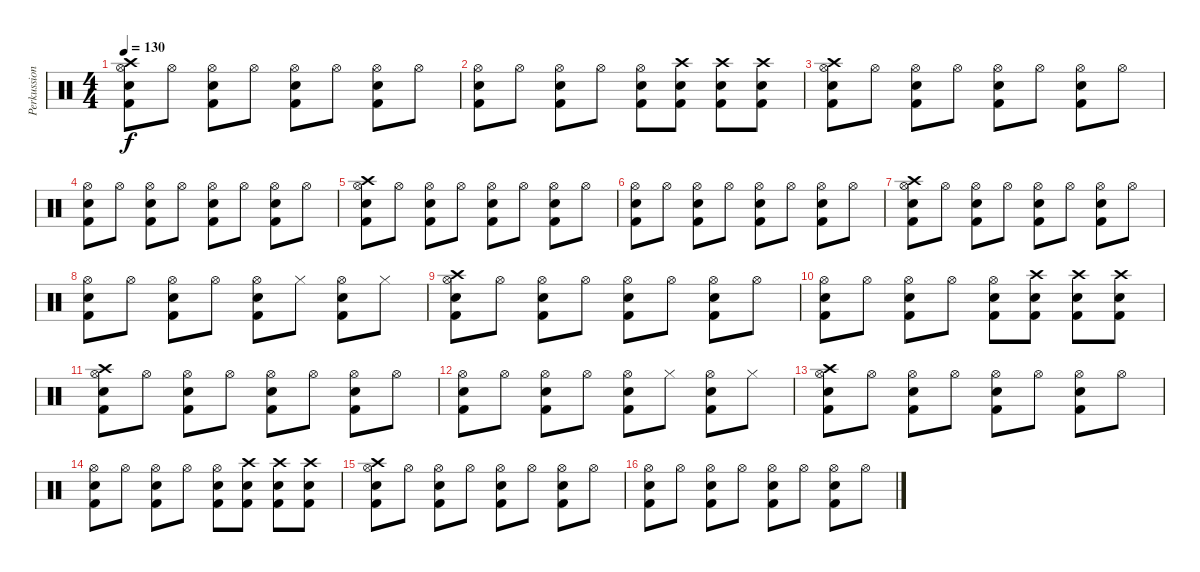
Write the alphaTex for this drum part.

\track ("Perkussion" "Perkussion") {instrument percussion}
\staff {score}
\articulation defaults
\ts (4 4)
\tempo 130
\clef neutral
\ks c
("Hi-Hat (open)" "Crash high (hit)" "Electric Snare (hit)" "Kick (hit) 2").8{dy f} "Hi-Hat (open)".8 ("Hi-Hat (open)" "Electric Snare (hit)" "Kick (hit) 2").8 "Hi-Hat (open)".8 ("Hi-Hat (open)" "Electric Snare (hit)" "Kick (hit) 2").8 "Hi-Hat (open)".8 ("Hi-Hat (open)" "Electric Snare (hit)" "Kick (hit) 2").8 "Hi-Hat (open)".8 |
("Hi-Hat (open)" "Electric Snare (hit)" "Kick (hit) 2").8 "Hi-Hat (open)".8 ("Hi-Hat (open)" "Electric Snare (hit)" "Kick (hit) 2").8 "Hi-Hat (open)".8 ("Hi-Hat (open)" "Electric Snare (hit)" "Kick (hit) 2").8 ("Crash high (hit)" "Electric Snare (hit)" "Kick (hit) 2").8 ("Crash high (hit)" "Electric Snare (hit)" "Kick (hit) 2").8 ("Crash high (hit)" "Electric Snare (hit)" "Kick (hit) 2").8 |
("Hi-Hat (open)" "Crash high (hit)" "Electric Snare (hit)" "Kick (hit) 2").8 "Hi-Hat (open)".8 ("Hi-Hat (open)" "Electric Snare (hit)" "Kick (hit) 2").8 "Hi-Hat (open)".8 ("Hi-Hat (open)" "Electric Snare (hit)" "Kick (hit) 2").8 "Hi-Hat (open)".8 ("Hi-Hat (open)" "Electric Snare (hit)" "Kick (hit) 2").8 "Hi-Hat (open)".8 |
("Hi-Hat (open)" "Electric Snare (hit)" "Kick (hit) 2").8 "Hi-Hat (open)".8 ("Hi-Hat (open)" "Electric Snare (hit)" "Kick (hit) 2").8 "Hi-Hat (open)".8 ("Hi-Hat (open)" "Electric Snare (hit)" "Kick (hit) 2").8 "Hi-Hat (open)".8 ("Hi-Hat (open)" "Electric Snare (hit)" "Kick (hit) 2").8 "Hi-Hat (open)".8 |
("Hi-Hat (open)" "Crash high (hit)" "Electric Snare (hit)" "Kick (hit) 2").8 "Hi-Hat (open)".8 ("Hi-Hat (open)" "Electric Snare (hit)" "Kick (hit) 2").8 "Hi-Hat (open)".8 ("Hi-Hat (open)" "Electric Snare (hit)" "Kick (hit) 2").8 "Hi-Hat (open)".8 ("Hi-Hat (open)" "Electric Snare (hit)" "Kick (hit) 2").8 "Hi-Hat (open)".8 |
("Hi-Hat (open)" "Electric Snare (hit)" "Kick (hit) 2").8 "Hi-Hat (open)".8 ("Hi-Hat (open)" "Electric Snare (hit)" "Kick (hit) 2").8 "Hi-Hat (open)".8 ("Hi-Hat (open)" "Electric Snare (hit)" "Kick (hit) 2").8 "Hi-Hat (open)".8 ("Hi-Hat (open)" "Electric Snare (hit)" "Kick (hit) 2").8 "Hi-Hat (open)".8 |
("Hi-Hat (open)" "Crash high (hit)" "Electric Snare (hit)" "Kick (hit) 2").8 "Hi-Hat (open)".8 ("Hi-Hat (open)" "Electric Snare (hit)" "Kick (hit) 2").8 "Hi-Hat (open)".8 ("Hi-Hat (open)" "Electric Snare (hit)" "Kick (hit) 2").8 "Hi-Hat (open)".8 ("Hi-Hat (open)" "Electric Snare (hit)" "Kick (hit) 2").8 "Hi-Hat (open)".8 |
("Hi-Hat (open)" "Electric Snare (hit)" "Kick (hit) 2").8 "Hi-Hat (open)".8 ("Hi-Hat (open)" "Electric Snare (hit)" "Kick (hit) 2").8 "Hi-Hat (open)".8 ("Hi-Hat (open)" "Electric Snare (hit)" "Kick (hit) 2").8 "Hi-Hat (closed)".8 ("Hi-Hat (open)" "Electric Snare (hit)" "Kick (hit) 2").8 "Hi-Hat (closed)".8 |
("Hi-Hat (open)" "Crash high (hit)" "Electric Snare (hit)" "Kick (hit) 2").8 "Hi-Hat (open)".8 ("Hi-Hat (open)" "Electric Snare (hit)" "Kick (hit) 2").8 "Hi-Hat (open)".8 ("Hi-Hat (open)" "Electric Snare (hit)" "Kick (hit) 2").8 "Hi-Hat (open)".8 ("Hi-Hat (open)" "Electric Snare (hit)" "Kick (hit) 2").8 "Hi-Hat (open)".8 |
("Hi-Hat (open)" "Electric Snare (hit)" "Kick (hit) 2").8 "Hi-Hat (open)".8 ("Hi-Hat (open)" "Electric Snare (hit)" "Kick (hit) 2").8 "Hi-Hat (open)".8 ("Hi-Hat (open)" "Electric Snare (hit)" "Kick (hit) 2").8 ("Crash high (hit)" "Electric Snare (hit)" "Kick (hit) 2").8 ("Crash high (hit)" "Electric Snare (hit)" "Kick (hit) 2").8 ("Crash high (hit)" "Electric Snare (hit)" "Kick (hit) 2").8 |
("Hi-Hat (open)" "Crash high (hit)" "Electric Snare (hit)" "Kick (hit) 2").8 "Hi-Hat (open)".8 ("Hi-Hat (open)" "Electric Snare (hit)" "Kick (hit) 2").8 "Hi-Hat (open)".8 ("Hi-Hat (open)" "Electric Snare (hit)" "Kick (hit) 2").8 "Hi-Hat (open)".8 ("Hi-Hat (open)" "Electric Snare (hit)" "Kick (hit) 2").8 "Hi-Hat (open)".8 |
("Hi-Hat (open)" "Electric Snare (hit)" "Kick (hit) 2").8 "Hi-Hat (open)".8 ("Hi-Hat (open)" "Electric Snare (hit)" "Kick (hit) 2").8 "Hi-Hat (open)".8 ("Hi-Hat (open)" "Electric Snare (hit)" "Kick (hit) 2").8 "Hi-Hat (closed)".8 ("Hi-Hat (open)" "Electric Snare (hit)" "Kick (hit) 2").8 "Hi-Hat (closed)".8 |
("Hi-Hat (open)" "Crash high (hit)" "Electric Snare (hit)" "Kick (hit) 2").8 "Hi-Hat (open)".8 ("Hi-Hat (open)" "Electric Snare (hit)" "Kick (hit) 2").8 "Hi-Hat (open)".8 ("Hi-Hat (open)" "Electric Snare (hit)" "Kick (hit) 2").8 "Hi-Hat (open)".8 ("Hi-Hat (open)" "Electric Snare (hit)" "Kick (hit) 2").8 "Hi-Hat (open)".8 |
("Hi-Hat (open)" "Electric Snare (hit)" "Kick (hit) 2").8 "Hi-Hat (open)".8 ("Hi-Hat (open)" "Electric Snare (hit)" "Kick (hit) 2").8 "Hi-Hat (open)".8 ("Hi-Hat (open)" "Electric Snare (hit)" "Kick (hit) 2").8 ("Crash high (hit)" "Electric Snare (hit)" "Kick (hit) 2").8 ("Crash high (hit)" "Electric Snare (hit)" "Kick (hit) 2").8 ("Crash high (hit)" "Electric Snare (hit)" "Kick (hit) 2").8 |
("Hi-Hat (open)" "Crash high (hit)" "Electric Snare (hit)" "Kick (hit) 2").8 "Hi-Hat (open)".8 ("Hi-Hat (open)" "Electric Snare (hit)" "Kick (hit) 2").8 "Hi-Hat (open)".8 ("Hi-Hat (open)" "Electric Snare (hit)" "Kick (hit) 2").8 "Hi-Hat (open)".8 ("Hi-Hat (open)" "Electric Snare (hit)" "Kick (hit) 2").8 "Hi-Hat (open)".8 |
("Hi-Hat (open)" "Electric Snare (hit)" "Kick (hit) 2").8 "Hi-Hat (open)".8 ("Hi-Hat (open)" "Electric Snare (hit)" "Kick (hit) 2").8 "Hi-Hat (open)".8 ("Hi-Hat (open)" "Electric Snare (hit)" "Kick (hit) 2").8 "Hi-Hat (open)".8 ("Hi-Hat (open)" "Electric Snare (hit)" "Kick (hit) 2").8 "Hi-Hat (open)".8
